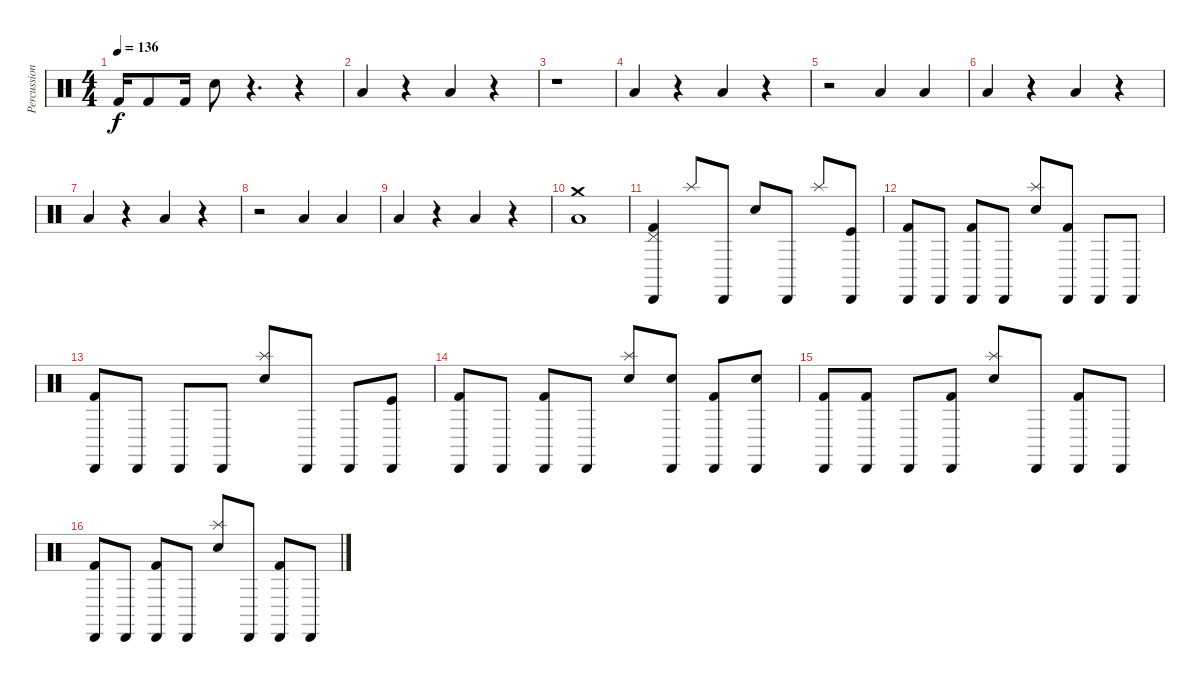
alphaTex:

\track ("Percussion 2" "Percussion") {instrument percussion}
\staff {score}
\articulation defaults
\ts (4 4)
\tempo 136
\clef neutral
\ks c "Kick (hit) 2".16{dy f} "Kick (hit) 2".8 "Kick (hit) 2".16 "Snare (hit) 2".8
r.4{d} r.4 |
"Low Floor Tom (hit)".4 r.4 "Low Floor Tom (hit)".4 r.4 |
r.1 |
"Low Floor Tom (hit)".4 r.4 "Low Floor Tom (hit)".4 r.4 |
r.2 "Low Floor Tom (hit)".4 "Low Floor Tom (hit)".4 |
"Low Floor Tom (hit)".4 r.4 "Low Floor Tom (hit)".4 r.4 |
"Low Floor Tom (hit)".4 r.4 "Low Floor Tom (hit)".4 r.4 |
r.2 "Low Floor Tom (hit)".4 "Low Floor Tom (hit)".4 |
"Low Floor Tom (hit)".4 r.4 "Low Floor Tom (hit)".4 r.4 |
("Low Floor Tom (hit)" "Crash medium (hit)").1 |
("Kick (hit) 2" "Pedal Hi-Hat (hit)" "Cabasa (hit)").4 "Splash (hit)".8 "Cabasa (hit)".8 "Snare (hit) 2".8 "Cabasa (hit)".8 "Splash (hit)".8 ("Kick (hit)" "Cabasa (hit)").8 |
("Kick (hit) 2" "Cabasa (hit)").8 "Cabasa (hit)".8 ("Kick (hit) 2" "Cabasa (hit)").8 "Cabasa (hit)".8 ("Snare (hit) 2" "Splash (hit)").8 ("Kick (hit) 2" "Cabasa (hit)").8 "Cabasa (hit)".8 "Cabasa (hit)".8 |
("Kick (hit) 2" "Cabasa (hit)").8 "Cabasa (hit)".8 "Cabasa (hit)".8 "Cabasa (hit)".8 ("Snare (hit) 2" "Splash (hit)").8 "Cabasa (hit)".8 "Cabasa (hit)".8 ("Kick (hit)" "Cabasa (hit)").8 |
("Kick (hit) 2" "Cabasa (hit)").8 "Cabasa (hit)".8 ("Kick (hit) 2" "Cabasa (hit)").8 "Cabasa (hit)".8 ("Snare (hit) 2" "Splash (hit)").8 ("Snare (hit) 2" "Cabasa (hit)").8 ("Kick (hit) 2" "Cabasa (hit)").8 ("Snare (hit) 2" "Cabasa (hit)").8 |
("Kick (hit) 2" "Cabasa (hit)").8 ("Kick (hit) 2" "Cabasa (hit)").8 "Cabasa (hit)".8 ("Kick (hit) 2" "Cabasa (hit)").8 ("Snare (hit) 2" "Splash (hit)").8 "Cabasa (hit)".8 ("Kick (hit) 2" "Cabasa (hit)").8 "Cabasa (hit)".8 |
("Kick (hit) 2" "Cabasa (hit)").8 "Cabasa (hit)".8 ("Kick (hit) 2" "Cabasa (hit)").8 "Cabasa (hit)".8 ("Snare (hit) 2" "Splash (hit)").8 "Cabasa (hit)".8 ("Kick (hit) 2" "Cabasa (hit)").8 "Cabasa (hit)".8
